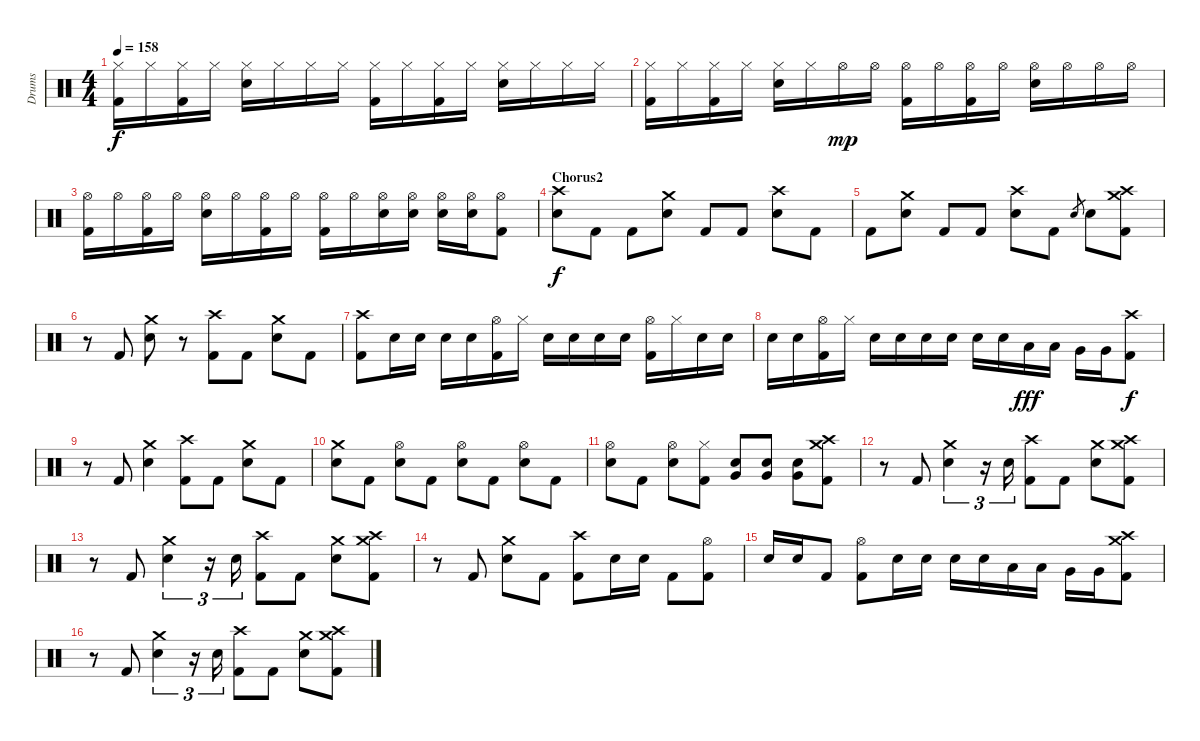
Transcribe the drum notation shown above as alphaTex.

\track ("Drums" "Drums") {instrument percussion}
\staff {score}
\articulation defaults
\ts (4 4)
\tempo 158
\clef neutral
\ks c
("Hi-Hat (closed)" "Kick (hit) 2").16{dy f} "Hi-Hat (closed)".16 ("Hi-Hat (closed)" "Kick (hit) 2").16 "Hi-Hat (closed)".16 ("Hi-Hat (closed)" "Snare (hit) 2").16 "Hi-Hat (closed)".16 "Hi-Hat (closed)".16 "Hi-Hat (closed)".16 ("Hi-Hat (closed)" "Kick (hit) 2").16 "Hi-Hat (closed)".16 ("Hi-Hat (closed)" "Kick (hit) 2").16 "Hi-Hat (closed)".16 ("Hi-Hat (closed)" "Snare (hit) 2").16 "Hi-Hat (closed)".16 "Hi-Hat (closed)".16 "Hi-Hat (closed)".16 |
("Hi-Hat (closed)" "Kick (hit) 2").16 "Hi-Hat (closed)".16 ("Hi-Hat (closed)" "Kick (hit) 2").16 "Hi-Hat (closed)".16 ("Hi-Hat (closed)" "Snare (hit) 2").16 "Hi-Hat (closed)".16 "Hi-Hat (open)".16{dy mp} "Hi-Hat (open)".16 ("Hi-Hat (open)" "Kick (hit) 2").16 "Hi-Hat (open)".16 ("Hi-Hat (open)" "Kick (hit) 2").16 "Hi-Hat (open)".16 ("Hi-Hat (open)" "Snare (hit) 2").16 "Hi-Hat (open)".16 "Hi-Hat (open)".16 "Hi-Hat (open)".16 |
("Hi-Hat (open)" "Kick (hit) 2").16 "Hi-Hat (open)".16 ("Hi-Hat (open)" "Kick (hit) 2").16 "Hi-Hat (open)".16 ("Hi-Hat (open)" "Snare (hit) 2").16 "Hi-Hat (open)".16 ("Hi-Hat (open)" "Kick (hit) 2").16 "Hi-Hat (open)".16 ("Hi-Hat (open)" "Kick (hit) 2").16 "Hi-Hat (open)".16 ("Hi-Hat (open)" "Snare (hit) 2").16 ("Hi-Hat (open)" "Snare (hit) 2").16 ("Hi-Hat (open)" "Snare (hit) 2").16 ("Hi-Hat (open)" "Snare (hit) 2").16 ("Hi-Hat (open)" "Kick (hit) 2").8 |
\section ("" "Chorus2")
("Crash high (hit)" "Snare (hit) 2").8{dy f} "Kick (hit) 2".8 "Kick (hit) 2".8 ("Crash medium (hit)" "Snare (hit) 2").8 "Kick (hit) 2".8 "Kick (hit) 2".8 ("Crash high (hit)" "Snare (hit) 2").8 "Kick (hit) 2".8 |
"Kick (hit) 2".8 ("Crash medium (hit)" "Snare (hit) 2").8 "Kick (hit) 2".8 "Kick (hit) 2".8 ("Crash high (hit)" "Snare (hit) 2").8 "Kick (hit) 2".8 "Snare (hit) 2".8{gr} "Snare (hit) 2".8 ("Crash high (hit)" "Crash medium (hit)" "Kick (hit) 2").8 |
r.8 "Kick (hit) 2".8 ("Crash medium (hit)" "Snare (hit) 2").8 r.8 ("Crash high (hit)" "Kick (hit) 2").8 "Kick (hit) 2".8 ("Crash medium (hit)" "Snare (hit) 2").8 "Kick (hit) 2".8 |
("Crash high (hit)" "Kick (hit) 2").8 "Snare (hit) 2".16 "Snare (hit) 2".16 "Snare (hit) 2".16 "Snare (hit) 2".16 ("Hi-Hat (open)" "Kick (hit) 2").16 "Hi-Hat (closed)".16 "Snare (hit) 2".16 "Snare (hit) 2".16 "Snare (hit) 2".16 "Snare (hit) 2".16 ("Hi-Hat (open)" "Kick (hit) 2").16 "Hi-Hat (closed)".16 "Snare (hit) 2".16 "Snare (hit) 2".16 |
"Snare (hit) 2".16 "Snare (hit) 2".16 ("Hi-Hat (open)" "Kick (hit) 2").16 "Hi-Hat (closed)".16 "Snare (hit) 2".16 "Snare (hit) 2".16 "Snare (hit) 2".16 "Snare (hit) 2".16 "Snare (hit) 2".16 "Snare (hit) 2".16 "Low Tom (hit)".16{dy fff} "Low Tom (hit)".16 "Very Low Tom (hit)".16 "Very Low Tom (hit)".16 ("Crash high (hit)" "Kick (hit) 2").8{dy f} |
r.8 "Kick (hit) 2".8 ("Crash medium (hit)" "Snare (hit) 2").4 ("Crash high (hit)" "Kick (hit) 2").8 "Kick (hit) 2".8 ("Crash medium (hit)" "Snare (hit) 2").8 "Kick (hit) 2".8 |
("Crash medium (hit)" "Snare (hit) 2").8 "Kick (hit) 2".8 ("Hi-Hat (open)" "Snare (hit) 2").8 "Kick (hit) 2".8 ("Hi-Hat (open)" "Snare (hit) 2").8 "Kick (hit) 2".8 ("Hi-Hat (open)" "Snare (hit) 2").8 "Kick (hit) 2".8 |
("Hi-Hat (open)" "Snare (hit) 2").8 "Kick (hit) 2".8 ("Hi-Hat (open)" "Snare (hit) 2").8 ("Hi-Hat (closed)" "Kick (hit) 2").8 ("Very Low Tom (hit)" "Snare (hit) 2").8 ("Very Low Tom (hit)" "Snare (hit) 2").8 ("Very Low Tom (hit)" "Snare (hit) 2").8 ("Crash high (hit)" "Crash medium (hit)" "Kick (hit) 2").8 |
r.8 "Kick (hit) 2".8 ("Crash medium (hit)" "Snare (hit) 2").4{tu (3 2)} r.16{tu (3 2)} "Snare (hit) 2".16{tu (3 2)} ("Crash high (hit)" "Kick (hit) 2").8 "Kick (hit) 2".8 ("Crash medium (hit)" "Snare (hit) 2").8 ("Crash high (hit)" "Crash medium (hit)" "Kick (hit) 2").8 |
r.8 "Kick (hit) 2".8 ("Crash medium (hit)" "Snare (hit) 2").4{tu (3 2)} r.16{tu (3 2)} "Snare (hit) 2".16{tu (3 2)} ("Crash high (hit)" "Kick (hit) 2").8 "Kick (hit) 2".8 ("Crash medium (hit)" "Snare (hit) 2").8 ("Crash high (hit)" "Crash medium (hit)" "Kick (hit) 2").8 |
r.8 "Kick (hit) 2".8 ("Crash medium (hit)" "Snare (hit) 2").8 "Kick (hit) 2".8 ("Crash high (hit)" "Kick (hit) 2").8 "Snare (hit) 2".16 "Snare (hit) 2".16 "Kick (hit) 2".8 ("Hi-Hat (open)" "Kick (hit) 2").8 |
"Snare (hit) 2".16 "Snare (hit) 2".16 "Kick (hit) 2".8 ("Hi-Hat (open)" "Kick (hit) 2").8 "Snare (hit) 2".16 "Snare (hit) 2".16 "Snare (hit) 2".16 "Snare (hit) 2".16 "Low Tom (hit)".16 "Low Tom (hit)".16 "Very Low Tom (hit)".16 "Very Low Tom (hit)".16 ("Crash high (hit)" "Crash medium (hit)" "Kick (hit) 2").8 |
r.8 "Kick (hit) 2".8 ("Crash medium (hit)" "Snare (hit) 2").4{tu (3 2)} r.16{tu (3 2)} "Snare (hit) 2".16{tu (3 2)} ("Crash high (hit)" "Kick (hit) 2").8 "Kick (hit) 2".8 ("Crash medium (hit)" "Snare (hit) 2").8 ("Crash high (hit)" "Crash medium (hit)" "Kick (hit) 2").8
